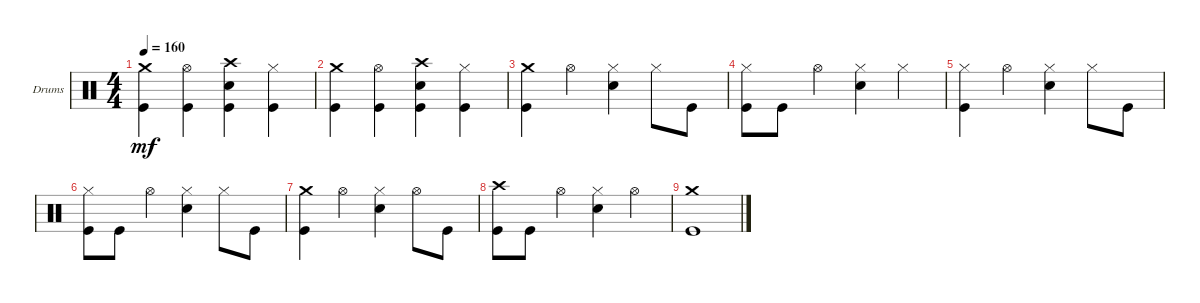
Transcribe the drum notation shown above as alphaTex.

\defaultSystemsLayout 4
\bracketExtendMode groupsimilarinstruments
\firstSystemTrackNameOrientation horizontal
\otherSystemsTrackNameOrientation horizontal
\track ("Drumkit" "Drums") {instrument percussion}
\staff {score}
\articulation defaults
\ts (4 4)
\tempo 160
\clef neutral
\ks c
("Crash medium (hit)" "Kick (hit)").4{dy mf} ("Hi-Hat (open)" "Kick (hit)").4 ("Snare (hit) 2" "Kick (hit)" "Crash high (hit)").4 ("Hi-Hat (closed)" "Kick (hit)").4 |
("Crash medium (hit)" "Kick (hit)").4 ("Hi-Hat (open)" "Kick (hit)").4 ("Snare (hit) 2" "Kick (hit)" "Crash high (hit)").4 ("Hi-Hat (closed)" "Kick (hit)").4 |
("Crash medium (hit)" "Kick (hit)").4 "Hi-Hat (open)".4 ("Snare (hit) 2" "Hi-Hat (closed)").4 "Hi-Hat (closed)".8 "Kick (hit)".8 |
("Kick (hit)" "Hi-Hat (closed)").8 "Kick (hit)".8 "Hi-Hat (open)".4 ("Snare (hit) 2" "Hi-Hat (closed)").4 "Hi-Hat (closed)".4 |
("Kick (hit)" "Hi-Hat (closed)").4 "Hi-Hat (open)".4 ("Snare (hit) 2" "Hi-Hat (closed)").4 "Hi-Hat (closed)".8 "Kick (hit)".8 |
("Kick (hit)" "Hi-Hat (closed)").8 "Kick (hit)".8 "Hi-Hat (open)".4 ("Snare (hit) 2" "Hi-Hat (closed)").4 "Hi-Hat (closed)".8 "Kick (hit)".8 |
("Crash medium (hit)" "Kick (hit)").4 "Hi-Hat (open)".4 ("Snare (hit) 2" "Hi-Hat (closed)").4 "Hi-Hat (open)".8 "Kick (hit)".8 |
("Kick (hit)" "Crash high (hit)").8 "Kick (hit)".8 "Hi-Hat (open)".4 ("Snare (hit) 2" "Hi-Hat (closed)").4 "Hi-Hat (open)".4 |
("Crash medium (hit)" "Kick (hit)").1
